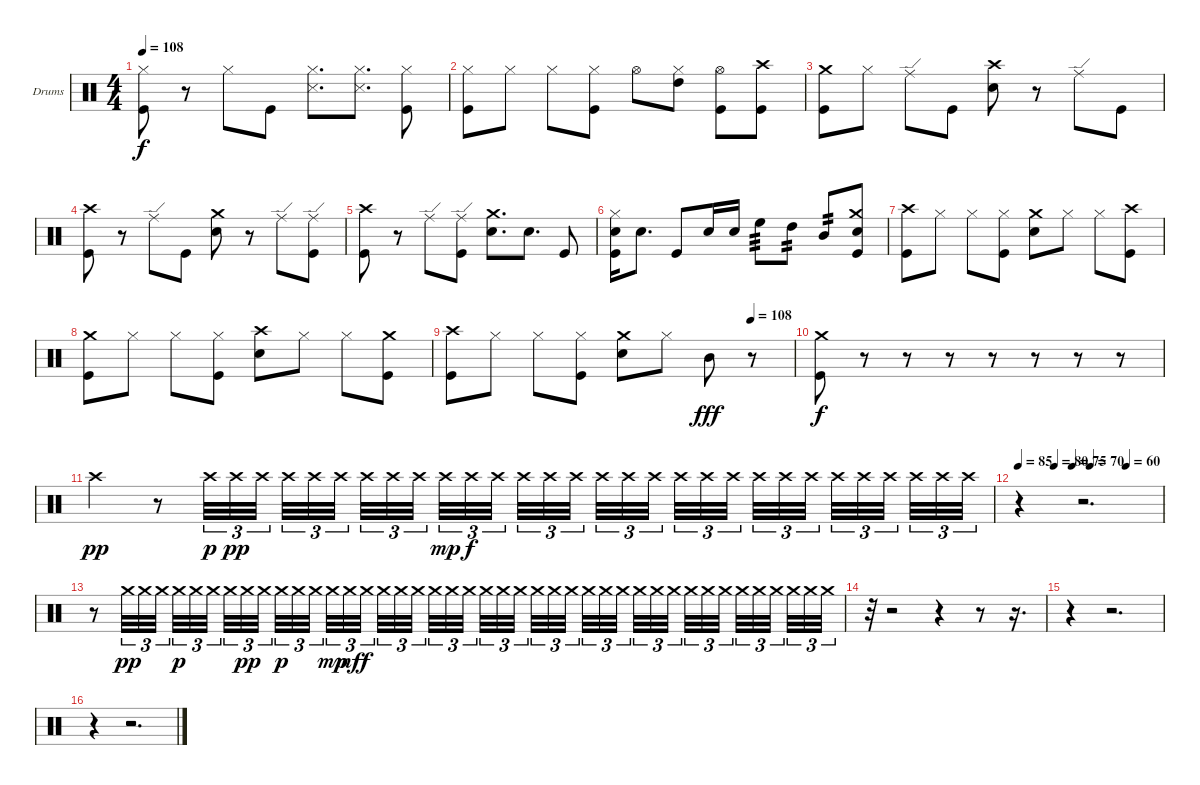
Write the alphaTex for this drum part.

\bracketExtendMode groupsimilarinstruments
\firstSystemTrackNameOrientation horizontal
\otherSystemsTrackNameOrientation horizontal
\track ("Drumkit" "Drums") {instrument percussion}
\staff {score}
\articulation defaults
\ts (4 4)
\tempo 108
\clef neutral
\ks c
("Hi-Hat (closed)" "Kick (hit)").8{dy f} r.8 "Hi-Hat (closed)".8 "Kick (hit)".8 ("Hi-Hat (closed)" "Snare (side stick) 3").8{d} ("Hi-Hat (closed)" "Snare (side stick) 3").8{d} ("Hi-Hat (closed)" "Kick (hit)").8 |
("Hi-Hat (closed)" "Kick (hit)").8 "Hi-Hat (closed)".8 "Hi-Hat (closed)".8 ("Hi-Hat (closed)" "Kick (hit)").8 "Hi-Hat (open)".8 ("Hi-Hat (closed)" "High Tom (hit)").8 ("Hi-Hat (open)" "Kick (hit)").8 ("Crash high (hit)" "Kick (hit)").8 |
("Crash medium (hit)" "Kick (hit)").8 "Hi-Hat (closed)".8 "Ride (edge)".8 "Kick (hit)".8 ("Crash high (hit)" "Snare (hit) 2").8 r.8 "Ride (edge)".8 "Kick (hit)".8 |
("Crash high (hit)" "Kick (hit)").8 r.8 "Ride (edge)".8 "Kick (hit)".8 ("Crash medium (hit)" "Snare (hit) 2").8 r.8 "Ride (edge)".8 ("Ride (edge)" "Kick (hit)").8 |
("Crash high (hit)" "Kick (hit)").8 r.8 "Ride (edge)".8 ("Ride (edge)" "Kick (hit)").8 ("Crash medium (hit)" "Snare (hit) 2").8{d} "Snare (hit) 2".8{d} "Kick (hit)".8 |
("Hi-Hat (closed)" "Snare (hit) 2" "Kick (hit)").16 "Snare (hit) 2".8{d} "Kick (hit)".8 "Snare (hit) 2".16 "Snare (hit) 2".16 "High Floor Tom (hit)".8{tp 3} "High Tom (hit)".8{tp 2} "Mid Tom (hit)".8{tp 2} ("Crash medium (hit)" "Snare (hit) 2" "Kick (hit)").8 |
("Crash high (hit)" "Kick (hit)").8 "Hi-Hat (closed)".8 "Hi-Hat (closed)".8 ("Hi-Hat (closed)" "Kick (hit)").8 ("Crash medium (hit)" "Snare (hit) 2").8 "Hi-Hat (closed)".8 "Hi-Hat (closed)".8 ("Crash high (hit)" "Kick (hit)").8 |
("Crash medium (hit)" "Kick (hit)").8 "Hi-Hat (closed)".8 "Hi-Hat (closed)".8 ("Hi-Hat (closed)" "Kick (hit)").8 ("Crash high (hit)" "Snare (hit) 2").8 "Hi-Hat (closed)".8 "Hi-Hat (closed)".8 ("Crash medium (hit)" "Kick (hit)").8 |
\tempo (108 0.875)
("Crash high (hit)" "Kick (hit)").8 "Hi-Hat (closed)".8 "Hi-Hat (closed)".8 ("Hi-Hat (closed)" "Kick (hit)").8 ("Crash medium (hit)" "Snare (hit) 2").8 "Hi-Hat (closed)".8 "Mid Tom (hit)".8{dy fff} r.8 |
("Crash medium (hit)" "Kick (hit)").8{dy f} r.8 r.8 r.8 r.8 r.8 r.8 r.8 |
"Crash high (hit)".4{dy pp} r.8 "Crash high (hit)".32{tu (3 2) dy p} "Crash high (hit)".32{tu (3 2) dy pp} "Crash high (hit)".32{tu (3 2)} "Crash high (hit)".32{tu (3 2)} "Crash high (hit)".32{tu (3 2)} "Crash high (hit)".32{tu (3 2)} "Crash high (hit)".32{tu (3 2)} "Crash high (hit)".32{tu (3 2)} "Crash high (hit)".32{tu (3 2)} "Crash high (hit)".32{tu (3 2) dy mp} "Crash high (hit)".32{tu (3 2) dy f} "Crash high (hit)".32{tu (3 2)} "Crash high (hit)".32{tu (3 2)} "Crash high (hit)".32{tu (3 2)} "Crash high (hit)".32{tu (3 2)} "Crash high (hit)".32{tu (3 2)} "Crash high (hit)".32{tu (3 2)} "Crash high (hit)".32{tu (3 2)} "Crash high (hit)".32{tu (3 2)} "Crash high (hit)".32{tu (3 2)} "Crash high (hit)".32{tu (3 2)} "Crash high (hit)".32{tu (3 2)} "Crash high (hit)".32{tu (3 2)} "Crash high (hit)".32{tu (3 2)} "Crash high (hit)".32{tu (3 2)} "Crash high (hit)".32{tu (3 2)} "Crash high (hit)".32{tu (3 2)} "Crash high (hit)".32{tu (3 2)} "Crash high (hit)".32{tu (3 2)} "Crash high (hit)".32{tu (3 2)} |
\tempo 85
\tempo (80 0.25)
\tempo (75 0.375)
\tempo (70 0.5)
\tempo (60 0.75)
r.4 r.2{d} |
r.8 "Crash medium (hit)".32{tu (3 2) dy pp} "Crash medium (hit)".32{tu (3 2)} "Crash medium (hit)".32{tu (3 2)} "Crash medium (hit)".32{tu (3 2) dy p} "Crash medium (hit)".32{tu (3 2)} "Crash medium (hit)".32{tu (3 2)} "Crash medium (hit)".32{tu (3 2)} "Crash medium (hit)".32{tu (3 2) dy pp} "Crash medium (hit)".32{tu (3 2)} "Crash medium (hit)".32{tu (3 2) dy p} "Crash medium (hit)".32{tu (3 2)} "Crash medium (hit)".32{tu (3 2)} "Crash medium (hit)".32{tu (3 2) dy mp} "Crash medium (hit)".32{tu (3 2) dy mf} "Crash medium (hit)".32{tu (3 2) dy f} "Crash medium (hit)".32{tu (3 2)} "Crash medium (hit)".32{tu (3 2)} "Crash medium (hit)".32{tu (3 2)} "Crash medium (hit)".32{tu (3 2)} "Crash medium (hit)".32{tu (3 2)} "Crash medium (hit)".32{tu (3 2)} "Crash medium (hit)".32{tu (3 2)} "Crash medium (hit)".32{tu (3 2)} "Crash medium (hit)".32{tu (3 2)} "Crash medium (hit)".32{tu (3 2)} "Crash medium (hit)".32{tu (3 2)} "Crash medium (hit)".32{tu (3 2)} "Crash medium (hit)".32{tu (3 2)} "Crash medium (hit)".32{tu (3 2)} "Crash medium (hit)".32{tu (3 2)} "Crash medium (hit)".32{tu (3 2)} "Crash medium (hit)".32{tu (3 2)} "Crash medium (hit)".32{tu (3 2)} "Crash medium (hit)".32{tu (3 2)} "Crash medium (hit)".32{tu (3 2)} "Crash medium (hit)".32{tu (3 2)} "Crash medium (hit)".32{tu (3 2)} "Crash medium (hit)".32{tu (3 2)} "Crash medium (hit)".32{tu (3 2)} "Crash medium (hit)".32{tu (3 2)} "Crash medium (hit)".32{tu (3 2)} "Crash medium (hit)".32{tu (3 2)} |
r.32 r.2 r.4 r.8 r.16{d} |
r.4 r.2{d} |
r.4 r.2{d}
